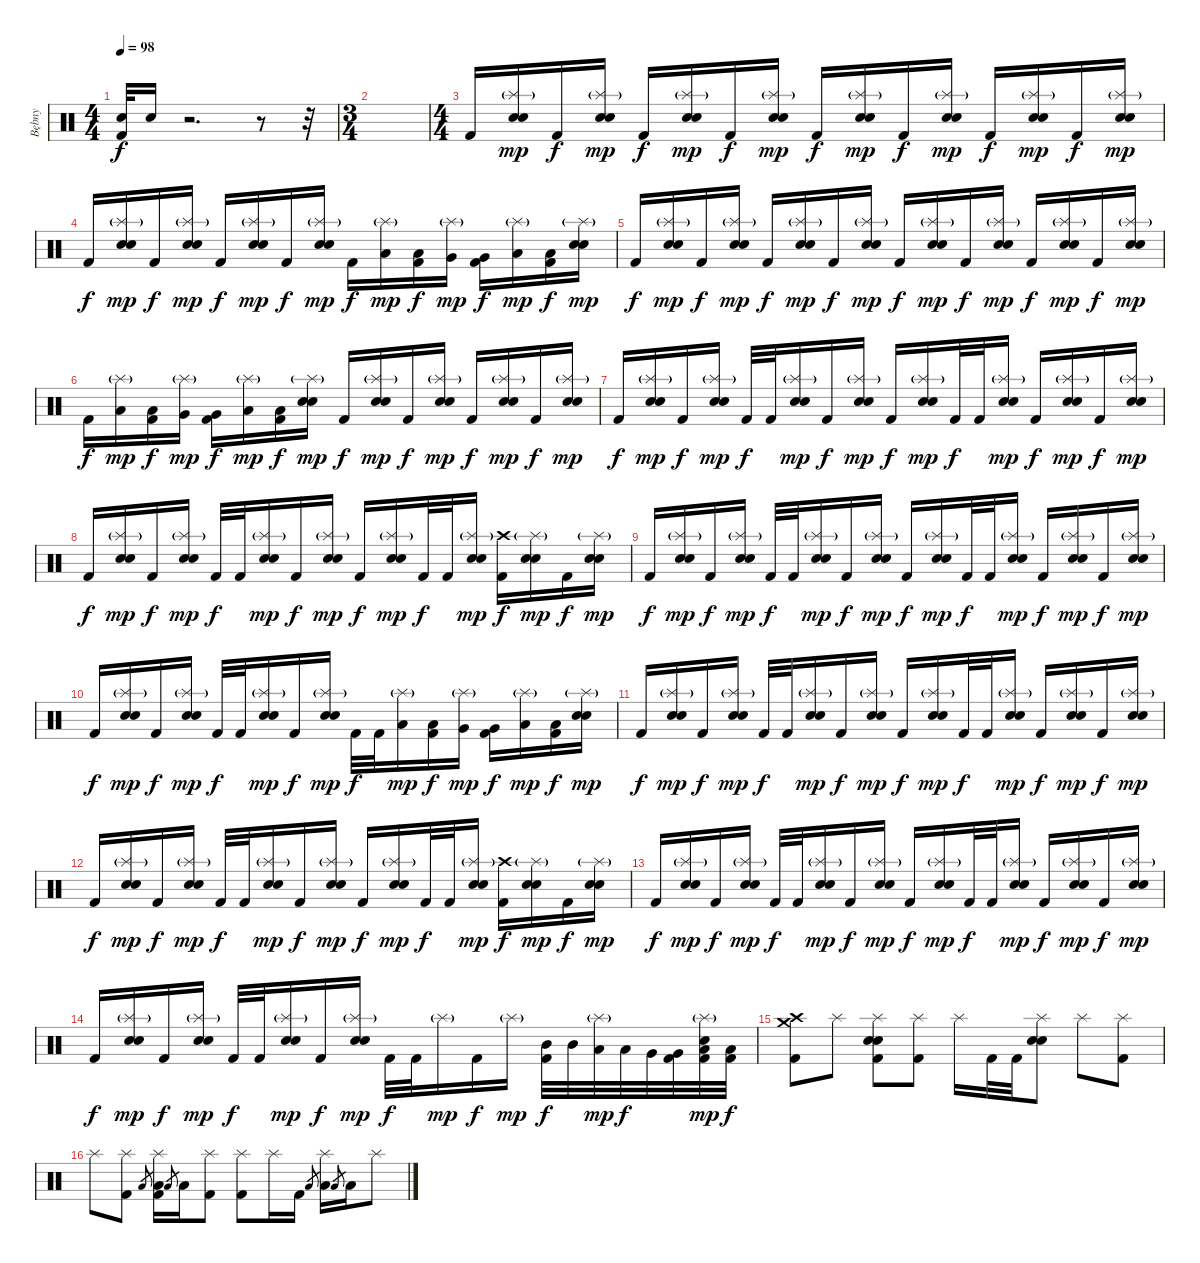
\track ("Bębny" "Bębny") {instrument percussion}
\staff {score}
\articulation defaults
\ts (4 4)
\tempo 98
\clef neutral
\ks c
("Electric Snare (hit)" "Kick (hit) 2").32{dy f} "Electric Snare (hit)".16 r.2{d} r.8 r.32 |
\ts (3 4)
|
\ts (4 4)
"Kick (hit) 2".16 ("Splash (hit)"{g} "Snare (hit) 2" "Electric Snare (hit)").16{dy mp} "Kick (hit) 2".16{dy f} ("Splash (hit)"{g} "Snare (hit) 2" "Electric Snare (hit)").16{dy mp} "Kick (hit) 2".16{dy f} ("Splash (hit)"{g} "Snare (hit) 2" "Electric Snare (hit)").16{dy mp} "Kick (hit) 2".16{dy f} ("Splash (hit)"{g} "Snare (hit) 2" "Electric Snare (hit)").16{dy mp} "Kick (hit) 2".16{dy f} ("Splash (hit)"{g} "Snare (hit) 2" "Electric Snare (hit)").16{dy mp} "Kick (hit) 2".16{dy f} ("Splash (hit)"{g} "Snare (hit) 2" "Electric Snare (hit)").16{dy mp} "Kick (hit) 2".16{dy f} ("Splash (hit)"{g} "Snare (hit) 2" "Electric Snare (hit)").16{dy mp} "Kick (hit) 2".16{dy f} ("Splash (hit)"{g} "Snare (hit) 2" "Electric Snare (hit)").16{dy mp} |
"Kick (hit) 2".16{dy f} ("Splash (hit)"{g} "Snare (hit) 2" "Electric Snare (hit)").16{dy mp} "Kick (hit) 2".16{dy f} ("Splash (hit)"{g} "Snare (hit) 2" "Electric Snare (hit)").16{dy mp} "Kick (hit) 2".16{dy f} ("Splash (hit)"{g} "Snare (hit) 2" "Electric Snare (hit)").16{dy mp} "Kick (hit) 2".16{dy f} ("Splash (hit)"{g} "Snare (hit) 2" "Electric Snare (hit)").16{dy mp} "Kick (hit) 2".16{dy f} ("Splash (hit)"{g} "Low Tom (hit)").16{dy mp} ("Low Tom (hit)" "Kick (hit) 2").16{dy f} ("Splash (hit)"{g} "Very Low Tom (hit)").16{dy mp} ("Very Low Tom (hit)" "Kick (hit) 2").16{dy f} ("Splash (hit)"{g} "Low Floor Tom (hit)").16{dy mp} ("Low Floor Tom (hit)" "Kick (hit) 2").16{dy f} ("Splash (hit)"{g} "Snare (hit) 2" "Electric Snare (hit)").16{dy mp} |
"Kick (hit) 2".16{dy f} ("Splash (hit)"{g} "Snare (hit) 2" "Electric Snare (hit)").16{dy mp} "Kick (hit) 2".16{dy f} ("Splash (hit)"{g} "Snare (hit) 2" "Electric Snare (hit)").16{dy mp} "Kick (hit) 2".16{dy f} ("Splash (hit)"{g} "Snare (hit) 2" "Electric Snare (hit)").16{dy mp} "Kick (hit) 2".16{dy f} ("Splash (hit)"{g} "Snare (hit) 2" "Electric Snare (hit)").16{dy mp} "Kick (hit) 2".16{dy f} ("Splash (hit)"{g} "Snare (hit) 2" "Electric Snare (hit)").16{dy mp} "Kick (hit) 2".16{dy f} ("Splash (hit)"{g} "Snare (hit) 2" "Electric Snare (hit)").16{dy mp} "Kick (hit) 2".16{dy f} ("Splash (hit)"{g} "Snare (hit) 2" "Electric Snare (hit)").16{dy mp} "Kick (hit) 2".16{dy f} ("Splash (hit)"{g} "Snare (hit) 2" "Electric Snare (hit)").16{dy mp} |
"Kick (hit) 2".16{dy f} ("Splash (hit)"{g} "Low Tom (hit)").16{dy mp} ("Low Tom (hit)" "Kick (hit) 2").16{dy f} ("Splash (hit)"{g} "Very Low Tom (hit)").16{dy mp} ("Very Low Tom (hit)" "Kick (hit) 2").16{dy f} ("Splash (hit)"{g} "Low Floor Tom (hit)").16{dy mp} ("Low Floor Tom (hit)" "Kick (hit) 2").16{dy f} ("Splash (hit)"{g} "Snare (hit) 2" "Electric Snare (hit)").16{dy mp} "Kick (hit) 2".16{dy f} ("Splash (hit)"{g} "Snare (hit) 2" "Electric Snare (hit)").16{dy mp} "Kick (hit) 2".16{dy f} ("Splash (hit)"{g} "Snare (hit) 2" "Electric Snare (hit)").16{dy mp} "Kick (hit) 2".16{dy f} ("Splash (hit)"{g} "Snare (hit) 2" "Electric Snare (hit)").16{dy mp} "Kick (hit) 2".16{dy f} ("Splash (hit)"{g} "Snare (hit) 2" "Electric Snare (hit)").16{dy mp} |
"Kick (hit) 2".16{dy f} ("Splash (hit)"{g} "Snare (hit) 2" "Electric Snare (hit)").16{dy mp} "Kick (hit) 2".16{dy f} ("Splash (hit)"{g} "Snare (hit) 2" "Electric Snare (hit)").16{dy mp} "Kick (hit) 2".32{dy f} "Kick (hit) 2".32 ("Splash (hit)"{g} "Snare (hit) 2" "Electric Snare (hit)").16{dy mp} "Kick (hit) 2".16{dy f} ("Splash (hit)"{g} "Snare (hit) 2" "Electric Snare (hit)").16{dy mp} "Kick (hit) 2".16{dy f} ("Splash (hit)"{g} "Snare (hit) 2" "Electric Snare (hit)").16{dy mp} "Kick (hit) 2".32{dy f} "Kick (hit) 2".32 ("Splash (hit)"{g} "Snare (hit) 2" "Electric Snare (hit)").16{dy mp} "Kick (hit) 2".16{dy f} ("Splash (hit)"{g} "Snare (hit) 2" "Electric Snare (hit)").16{dy mp} "Kick (hit) 2".16{dy f} ("Splash (hit)"{g} "Snare (hit) 2" "Electric Snare (hit)").16{dy mp} |
"Kick (hit) 2".16{dy f} ("Splash (hit)"{g} "Snare (hit) 2" "Electric Snare (hit)").16{dy mp} "Kick (hit) 2".16{dy f} ("Splash (hit)"{g} "Snare (hit) 2" "Electric Snare (hit)").16{dy mp} "Kick (hit) 2".32{dy f} "Kick (hit) 2".32 ("Splash (hit)"{g} "Snare (hit) 2" "Electric Snare (hit)").16{dy mp} "Kick (hit) 2".16{dy f} ("Splash (hit)"{g} "Snare (hit) 2" "Electric Snare (hit)").16{dy mp} "Kick (hit) 2".16{dy f} ("Splash (hit)"{g} "Snare (hit) 2" "Electric Snare (hit)").16{dy mp} "Kick (hit) 2".32{dy f} "Kick (hit) 2".32 ("Splash (hit)"{g} "Snare (hit) 2" "Electric Snare (hit)").16{dy mp} ("Crash high (hit)" "Kick (hit) 2").16{dy f} ("Splash (hit)"{g} "Snare (hit) 2" "Electric Snare (hit)").16{dy mp} "Kick (hit) 2".16{dy f} ("Splash (hit)"{g} "Snare (hit) 2" "Electric Snare (hit)").16{dy mp} |
"Kick (hit) 2".16{dy f} ("Splash (hit)"{g} "Snare (hit) 2" "Electric Snare (hit)").16{dy mp} "Kick (hit) 2".16{dy f} ("Splash (hit)"{g} "Snare (hit) 2" "Electric Snare (hit)").16{dy mp} "Kick (hit) 2".32{dy f} "Kick (hit) 2".32 ("Splash (hit)"{g} "Snare (hit) 2" "Electric Snare (hit)").16{dy mp} "Kick (hit) 2".16{dy f} ("Splash (hit)"{g} "Snare (hit) 2" "Electric Snare (hit)").16{dy mp} "Kick (hit) 2".16{dy f} ("Splash (hit)"{g} "Snare (hit) 2" "Electric Snare (hit)").16{dy mp} "Kick (hit) 2".32{dy f} "Kick (hit) 2".32 ("Splash (hit)"{g} "Snare (hit) 2" "Electric Snare (hit)").16{dy mp} "Kick (hit) 2".16{dy f} ("Splash (hit)"{g} "Snare (hit) 2" "Electric Snare (hit)").16{dy mp} "Kick (hit) 2".16{dy f} ("Splash (hit)"{g} "Snare (hit) 2" "Electric Snare (hit)").16{dy mp} |
"Kick (hit) 2".16{dy f} ("Splash (hit)"{g} "Snare (hit) 2" "Electric Snare (hit)").16{dy mp} "Kick (hit) 2".16{dy f} ("Splash (hit)"{g} "Snare (hit) 2" "Electric Snare (hit)").16{dy mp} "Kick (hit) 2".32{dy f} "Kick (hit) 2".32 ("Splash (hit)"{g} "Snare (hit) 2" "Electric Snare (hit)").16{dy mp} "Kick (hit) 2".16{dy f} ("Splash (hit)"{g} "Snare (hit) 2" "Electric Snare (hit)").16{dy mp} "Kick (hit) 2".32{dy f} "Kick (hit) 2".32 ("Splash (hit)"{g} "Low Tom (hit)").16{dy mp} ("Low Tom (hit)" "Kick (hit) 2").16{dy f} ("Splash (hit)"{g} "Very Low Tom (hit)").16{dy mp} ("Very Low Tom (hit)" "Kick (hit) 2").16{dy f} ("Splash (hit)"{g} "Low Floor Tom (hit)").16{dy mp} ("Low Floor Tom (hit)" "Kick (hit) 2").16{dy f} ("Splash (hit)"{g} "Snare (hit) 2" "Electric Snare (hit)").16{dy mp} |
"Kick (hit) 2".16{dy f} ("Splash (hit)"{g} "Snare (hit) 2" "Electric Snare (hit)").16{dy mp} "Kick (hit) 2".16{dy f} ("Splash (hit)"{g} "Snare (hit) 2" "Electric Snare (hit)").16{dy mp} "Kick (hit) 2".32{dy f} "Kick (hit) 2".32 ("Splash (hit)"{g} "Snare (hit) 2" "Electric Snare (hit)").16{dy mp} "Kick (hit) 2".16{dy f} ("Splash (hit)"{g} "Snare (hit) 2" "Electric Snare (hit)").16{dy mp} "Kick (hit) 2".16{dy f} ("Splash (hit)"{g} "Snare (hit) 2" "Electric Snare (hit)").16{dy mp} "Kick (hit) 2".32{dy f} "Kick (hit) 2".32 ("Splash (hit)"{g} "Snare (hit) 2" "Electric Snare (hit)").16{dy mp} "Kick (hit) 2".16{dy f} ("Splash (hit)"{g} "Snare (hit) 2" "Electric Snare (hit)").16{dy mp} "Kick (hit) 2".16{dy f} ("Splash (hit)"{g} "Snare (hit) 2" "Electric Snare (hit)").16{dy mp} |
"Kick (hit) 2".16{dy f} ("Splash (hit)"{g} "Snare (hit) 2" "Electric Snare (hit)").16{dy mp} "Kick (hit) 2".16{dy f} ("Splash (hit)"{g} "Snare (hit) 2" "Electric Snare (hit)").16{dy mp} "Kick (hit) 2".32{dy f} "Kick (hit) 2".32 ("Splash (hit)"{g} "Snare (hit) 2" "Electric Snare (hit)").16{dy mp} "Kick (hit) 2".16{dy f} ("Splash (hit)"{g} "Snare (hit) 2" "Electric Snare (hit)").16{dy mp} "Kick (hit) 2".16{dy f} ("Splash (hit)"{g} "Snare (hit) 2" "Electric Snare (hit)").16{dy mp} "Kick (hit) 2".32{dy f} "Kick (hit) 2".32 ("Splash (hit)"{g} "Snare (hit) 2" "Electric Snare (hit)").16{dy mp} ("Crash high (hit)" "Kick (hit) 2").16{dy f} ("Splash (hit)"{g} "Snare (hit) 2" "Electric Snare (hit)").16{dy mp} "Kick (hit) 2".16{dy f} ("Splash (hit)"{g} "Snare (hit) 2" "Electric Snare (hit)").16{dy mp} |
"Kick (hit) 2".16{dy f} ("Splash (hit)"{g} "Snare (hit) 2" "Electric Snare (hit)").16{dy mp} "Kick (hit) 2".16{dy f} ("Splash (hit)"{g} "Snare (hit) 2" "Electric Snare (hit)").16{dy mp} "Kick (hit) 2".32{dy f} "Kick (hit) 2".32 ("Splash (hit)"{g} "Snare (hit) 2" "Electric Snare (hit)").16{dy mp} "Kick (hit) 2".16{dy f} ("Splash (hit)"{g} "Snare (hit) 2" "Electric Snare (hit)").16{dy mp} "Kick (hit) 2".16{dy f} ("Splash (hit)"{g} "Snare (hit) 2" "Electric Snare (hit)").16{dy mp} "Kick (hit) 2".32{dy f} "Kick (hit) 2".32 ("Splash (hit)"{g} "Snare (hit) 2" "Electric Snare (hit)").16{dy mp} "Kick (hit) 2".16{dy f} ("Splash (hit)"{g} "Snare (hit) 2" "Electric Snare (hit)").16{dy mp} "Kick (hit) 2".16{dy f} ("Splash (hit)"{g} "Snare (hit) 2" "Electric Snare (hit)").16{dy mp} |
"Kick (hit) 2".16{dy f} ("Splash (hit)"{g} "Snare (hit) 2" "Electric Snare (hit)").16{dy mp} "Kick (hit) 2".16{dy f} ("Splash (hit)"{g} "Snare (hit) 2" "Electric Snare (hit)").16{dy mp} "Kick (hit) 2".32{dy f} "Kick (hit) 2".32 ("Splash (hit)"{g} "Snare (hit) 2" "Electric Snare (hit)").16{dy mp} "Kick (hit) 2".16{dy f} ("Splash (hit)"{g} "Snare (hit) 2" "Electric Snare (hit)").16{dy mp} "Kick (hit) 2".32{dy f} "Kick (hit) 2".32 "Splash (hit)"{g}.16{dy mp} "Kick (hit) 2".16{dy f} "Splash (hit)"{g}.16{dy mp} ("Mid Tom (hit)" "Kick (hit) 2").32{dy f} "Mid Tom (hit)".32 ("Splash (hit)"{g} "Low Tom (hit)").32{dy mp} "Low Tom (hit)".32{dy f} "Very Low Tom (hit)".32 ("Very Low Tom (hit)" "Kick (hit) 2").32 ("Splash (hit)"{g} "Low Floor Tom (hit)" "Electric Snare (hit)" "Kick (hit) 2").32{dy mp} ("Low Floor Tom (hit)" "Kick (hit) 2").32{dy f} |
("Crash medium (hit)" "Crash high (hit)" "Kick (hit) 2").8 "Splash (hit)".8 ("Splash (hit)" "Snare (hit) 2" "Electric Snare (hit)" "Kick (hit) 2").8 ("Splash (hit)" "Kick (hit) 2").8 "Splash (hit)".16 "Kick (hit) 2".32 "Kick (hit) 2".32 ("Splash (hit)" "Snare (hit) 2" "Electric Snare (hit)").8 "Splash (hit)".8 ("Splash (hit)" "Kick (hit) 2").8 |
"Splash (hit)".8 ("Splash (hit)" "Kick (hit) 2").8 "Low Tom (hit)".8{gr} ("Splash (hit)" "Low Tom (hit)" "Kick (hit) 2").16 "Low Tom (hit)".8{gr} "Low Tom (hit)".16 ("Splash (hit)" "Kick (hit) 2").8 ("Splash (hit)" "Kick (hit) 2").8 "Splash (hit)".16 "Kick (hit) 2".16 "Low Floor Tom (hit)".8{gr} ("Splash (hit)" "Low Floor Tom (hit)").16 "Low Floor Tom (hit)".8{gr} "Low Floor Tom (hit)".16 "Splash (hit)".8
